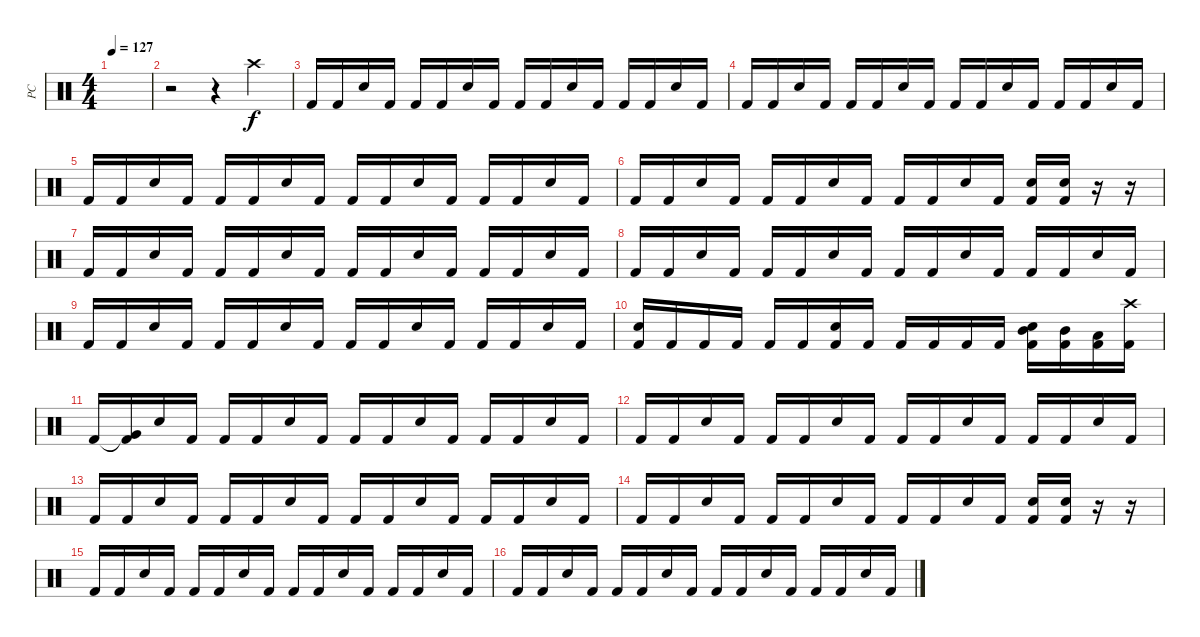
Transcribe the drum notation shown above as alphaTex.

\track ("PC" "PC") {instrument percussion}
\staff {score}
\articulation defaults
\ts (4 4)
\tempo 127
\clef neutral
\ks c
|
r.2 r.4 "Crash high (hit)".4 |
"Kick (hit) 2".16 "Kick (hit) 2".16 "Snare (hit) 2".16 "Kick (hit) 2".16 "Kick (hit) 2".16 "Kick (hit) 2".16 "Snare (hit) 2".16 "Kick (hit) 2".16 "Kick (hit) 2".16 "Kick (hit) 2".16 "Snare (hit) 2".16 "Kick (hit) 2".16 "Kick (hit) 2".16 "Kick (hit) 2".16 "Snare (hit) 2".16 "Kick (hit) 2".16 |
"Kick (hit) 2".16 "Kick (hit) 2".16 "Snare (hit) 2".16 "Kick (hit) 2".16 "Kick (hit) 2".16 "Kick (hit) 2".16 "Snare (hit) 2".16 "Kick (hit) 2".16 "Kick (hit) 2".16 "Kick (hit) 2".16 "Snare (hit) 2".16 "Kick (hit) 2".16 "Kick (hit) 2".16 "Kick (hit) 2".16 "Snare (hit) 2".16 "Kick (hit) 2".16 |
"Kick (hit) 2".16 "Kick (hit) 2".16 "Snare (hit) 2".16 "Kick (hit) 2".16 "Kick (hit) 2".16 "Kick (hit) 2".16 "Snare (hit) 2".16 "Kick (hit) 2".16 "Kick (hit) 2".16 "Kick (hit) 2".16 "Snare (hit) 2".16 "Kick (hit) 2".16 "Kick (hit) 2".16 "Kick (hit) 2".16 "Snare (hit) 2".16 "Kick (hit) 2".16 |
"Kick (hit) 2".16 "Kick (hit) 2".16 "Snare (hit) 2".16 "Kick (hit) 2".16 "Kick (hit) 2".16 "Kick (hit) 2".16 "Snare (hit) 2".16 "Kick (hit) 2".16 "Kick (hit) 2".16 "Kick (hit) 2".16 "Snare (hit) 2".16 "Kick (hit) 2".16 ("Snare (hit) 2" "Kick (hit) 2").16 ("Snare (hit) 2" "Kick (hit) 2").16 r.16 r.16 |
"Kick (hit) 2".16 "Kick (hit) 2".16 "Snare (hit) 2".16 "Kick (hit) 2".16 "Kick (hit) 2".16 "Kick (hit) 2".16 "Snare (hit) 2".16 "Kick (hit) 2".16 "Kick (hit) 2".16 "Kick (hit) 2".16 "Snare (hit) 2".16 "Kick (hit) 2".16 "Kick (hit) 2".16 "Kick (hit) 2".16 "Snare (hit) 2".16 "Kick (hit) 2".16 |
"Kick (hit) 2".16 "Kick (hit) 2".16 "Snare (hit) 2".16 "Kick (hit) 2".16 "Kick (hit) 2".16 "Kick (hit) 2".16 "Snare (hit) 2".16 "Kick (hit) 2".16 "Kick (hit) 2".16 "Kick (hit) 2".16 "Snare (hit) 2".16 "Kick (hit) 2".16 "Kick (hit) 2".16 "Kick (hit) 2".16 "Snare (hit) 2".16 "Kick (hit) 2".16 |
"Kick (hit) 2".16 "Kick (hit) 2".16 "Snare (hit) 2".16 "Kick (hit) 2".16 "Kick (hit) 2".16 "Kick (hit) 2".16 "Snare (hit) 2".16 "Kick (hit) 2".16 "Kick (hit) 2".16 "Kick (hit) 2".16 "Snare (hit) 2".16 "Kick (hit) 2".16 "Kick (hit) 2".16 "Kick (hit) 2".16 "Snare (hit) 2".16 "Kick (hit) 2".16 |
("Snare (hit) 2" "Kick (hit) 2").16 "Kick (hit) 2".16 "Kick (hit) 2".16 "Kick (hit) 2".16 "Kick (hit) 2".16 "Kick (hit) 2".16 ("Snare (hit) 2" "Kick (hit) 2").16 "Kick (hit) 2".16 "Kick (hit) 2".16 "Kick (hit) 2".16 "Kick (hit) 2".16 "Kick (hit) 2".16 ("Mid Tom (hit)" "Snare (hit) 2" "Kick (hit) 2").16 ("Mid Tom (hit)" "Kick (hit) 2").16 ("Low Tom (hit)" "Kick (hit) 2").16 ("Crash high (hit)" "Kick (hit) 2").16 |
"Kick (hit) 2".16 ("Very Low Tom (hit)"{t} "Kick (hit) 2").16 "Snare (hit) 2".16 "Kick (hit) 2".16 "Kick (hit) 2".16 "Kick (hit) 2".16 "Snare (hit) 2".16 "Kick (hit) 2".16 "Kick (hit) 2".16 "Kick (hit) 2".16 "Snare (hit) 2".16 "Kick (hit) 2".16 "Kick (hit) 2".16 "Kick (hit) 2".16 "Snare (hit) 2".16 "Kick (hit) 2".16 |
"Kick (hit) 2".16 "Kick (hit) 2".16 "Snare (hit) 2".16 "Kick (hit) 2".16 "Kick (hit) 2".16 "Kick (hit) 2".16 "Snare (hit) 2".16 "Kick (hit) 2".16 "Kick (hit) 2".16 "Kick (hit) 2".16 "Snare (hit) 2".16 "Kick (hit) 2".16 "Kick (hit) 2".16 "Kick (hit) 2".16 "Snare (hit) 2".16 "Kick (hit) 2".16 |
"Kick (hit) 2".16 "Kick (hit) 2".16 "Snare (hit) 2".16 "Kick (hit) 2".16 "Kick (hit) 2".16 "Kick (hit) 2".16 "Snare (hit) 2".16 "Kick (hit) 2".16 "Kick (hit) 2".16 "Kick (hit) 2".16 "Snare (hit) 2".16 "Kick (hit) 2".16 "Kick (hit) 2".16 "Kick (hit) 2".16 "Snare (hit) 2".16 "Kick (hit) 2".16 |
"Kick (hit) 2".16 "Kick (hit) 2".16 "Snare (hit) 2".16 "Kick (hit) 2".16 "Kick (hit) 2".16 "Kick (hit) 2".16 "Snare (hit) 2".16 "Kick (hit) 2".16 "Kick (hit) 2".16 "Kick (hit) 2".16 "Snare (hit) 2".16 "Kick (hit) 2".16 ("Snare (hit) 2" "Kick (hit) 2").16 ("Snare (hit) 2" "Kick (hit) 2").16 r.16 r.16 |
"Kick (hit) 2".16 "Kick (hit) 2".16 "Snare (hit) 2".16 "Kick (hit) 2".16 "Kick (hit) 2".16 "Kick (hit) 2".16 "Snare (hit) 2".16 "Kick (hit) 2".16 "Kick (hit) 2".16 "Kick (hit) 2".16 "Snare (hit) 2".16 "Kick (hit) 2".16 "Kick (hit) 2".16 "Kick (hit) 2".16 "Snare (hit) 2".16 "Kick (hit) 2".16 |
"Kick (hit) 2".16 "Kick (hit) 2".16 "Snare (hit) 2".16 "Kick (hit) 2".16 "Kick (hit) 2".16 "Kick (hit) 2".16 "Snare (hit) 2".16 "Kick (hit) 2".16 "Kick (hit) 2".16 "Kick (hit) 2".16 "Snare (hit) 2".16 "Kick (hit) 2".16 "Kick (hit) 2".16 "Kick (hit) 2".16 "Snare (hit) 2".16 "Kick (hit) 2".16
